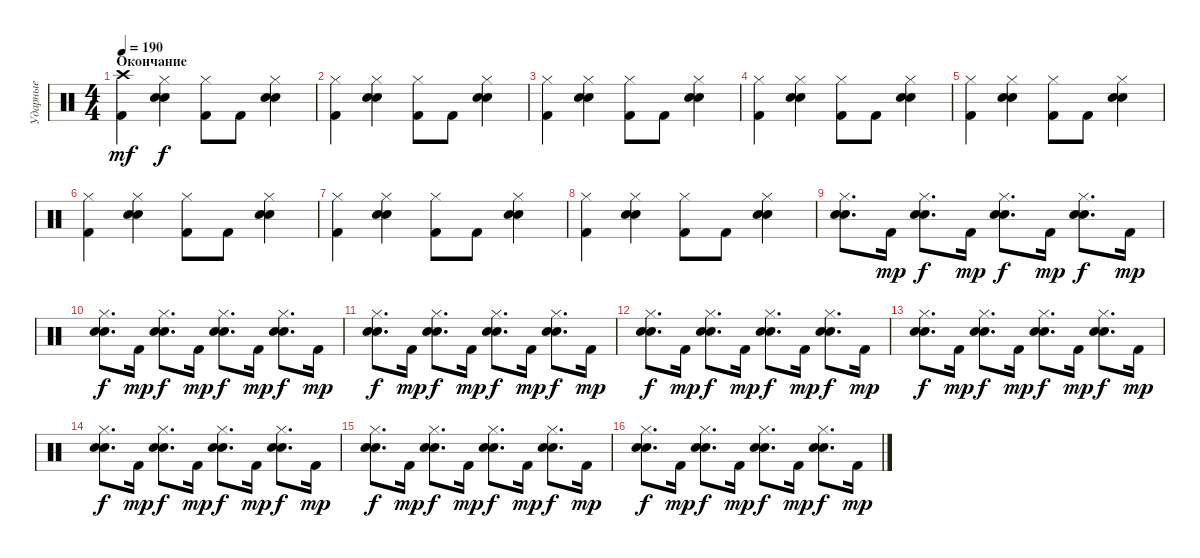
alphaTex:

\track ("Ударные" "Ударные") {instrument percussion}
\staff {score}
\articulation defaults
\ts (4 4)
\section ("" "Окончание")
\tempo 190
\clef neutral
\ks c
("Crash high (hit)" "Kick (hit) 2").4{dy mf} ("Hi-Hat (closed)" "Electric Snare (hit)" "Snare (hit) 2").4{dy f} ("Hi-Hat (closed)" "Kick (hit) 2").8 "Kick (hit) 2".8 ("Hi-Hat (closed)" "Electric Snare (hit)" "Snare (hit) 2").4 |
("Hi-Hat (closed)" "Kick (hit) 2").4 ("Hi-Hat (closed)" "Electric Snare (hit)" "Snare (hit) 2").4 ("Hi-Hat (closed)" "Kick (hit) 2").8 "Kick (hit) 2".8 ("Hi-Hat (closed)" "Electric Snare (hit)" "Snare (hit) 2").4 |
("Hi-Hat (closed)" "Kick (hit) 2").4 ("Hi-Hat (closed)" "Electric Snare (hit)" "Snare (hit) 2").4 ("Hi-Hat (closed)" "Kick (hit) 2").8 "Kick (hit) 2".8 ("Hi-Hat (closed)" "Electric Snare (hit)" "Snare (hit) 2").4 |
("Hi-Hat (closed)" "Kick (hit) 2").4 ("Hi-Hat (closed)" "Electric Snare (hit)" "Snare (hit) 2").4 ("Hi-Hat (closed)" "Kick (hit) 2").8 "Kick (hit) 2".8 ("Hi-Hat (closed)" "Electric Snare (hit)" "Snare (hit) 2").4 |
("Hi-Hat (closed)" "Kick (hit) 2").4 ("Hi-Hat (closed)" "Electric Snare (hit)" "Snare (hit) 2").4 ("Hi-Hat (closed)" "Kick (hit) 2").8 "Kick (hit) 2".8 ("Hi-Hat (closed)" "Electric Snare (hit)" "Snare (hit) 2").4 |
("Hi-Hat (closed)" "Kick (hit) 2").4 ("Hi-Hat (closed)" "Electric Snare (hit)" "Snare (hit) 2").4 ("Hi-Hat (closed)" "Kick (hit) 2").8 "Kick (hit) 2".8 ("Hi-Hat (closed)" "Electric Snare (hit)" "Snare (hit) 2").4 |
("Hi-Hat (closed)" "Kick (hit) 2").4 ("Hi-Hat (closed)" "Electric Snare (hit)" "Snare (hit) 2").4 ("Hi-Hat (closed)" "Kick (hit) 2").8 "Kick (hit) 2".8 ("Hi-Hat (closed)" "Electric Snare (hit)" "Snare (hit) 2").4 |
("Hi-Hat (closed)" "Kick (hit) 2").4 ("Hi-Hat (closed)" "Electric Snare (hit)" "Snare (hit) 2").4 ("Hi-Hat (closed)" "Kick (hit) 2").8 "Kick (hit) 2".8 ("Hi-Hat (closed)" "Electric Snare (hit)" "Snare (hit) 2").4 |
("Hi-Hat (closed)" "Electric Snare (hit)" "Snare (hit) 2").8{d} "Kick (hit) 2".16{dy mp} ("Hi-Hat (closed)" "Electric Snare (hit)" "Snare (hit) 2").8{d dy f} "Kick (hit) 2".16{dy mp} ("Hi-Hat (closed)" "Electric Snare (hit)" "Snare (hit) 2").8{d dy f} "Kick (hit) 2".16{dy mp} ("Hi-Hat (closed)" "Electric Snare (hit)" "Snare (hit) 2").8{d dy f} "Kick (hit) 2".16{dy mp} |
("Hi-Hat (closed)" "Electric Snare (hit)" "Snare (hit) 2").8{d dy f} "Kick (hit) 2".16{dy mp} ("Hi-Hat (closed)" "Electric Snare (hit)" "Snare (hit) 2").8{d dy f} "Kick (hit) 2".16{dy mp} ("Hi-Hat (closed)" "Electric Snare (hit)" "Snare (hit) 2").8{d dy f} "Kick (hit) 2".16{dy mp} ("Hi-Hat (closed)" "Electric Snare (hit)" "Snare (hit) 2").8{d dy f} "Kick (hit) 2".16{dy mp} |
("Hi-Hat (closed)" "Electric Snare (hit)" "Snare (hit) 2").8{d dy f} "Kick (hit) 2".16{dy mp} ("Hi-Hat (closed)" "Electric Snare (hit)" "Snare (hit) 2").8{d dy f} "Kick (hit) 2".16{dy mp} ("Hi-Hat (closed)" "Electric Snare (hit)" "Snare (hit) 2").8{d dy f} "Kick (hit) 2".16{dy mp} ("Hi-Hat (closed)" "Electric Snare (hit)" "Snare (hit) 2").8{d dy f} "Kick (hit) 2".16{dy mp} |
("Hi-Hat (closed)" "Electric Snare (hit)" "Snare (hit) 2").8{d dy f} "Kick (hit) 2".16{dy mp} ("Hi-Hat (closed)" "Electric Snare (hit)" "Snare (hit) 2").8{d dy f} "Kick (hit) 2".16{dy mp} ("Hi-Hat (closed)" "Electric Snare (hit)" "Snare (hit) 2").8{d dy f} "Kick (hit) 2".16{dy mp} ("Hi-Hat (closed)" "Electric Snare (hit)" "Snare (hit) 2").8{d dy f} "Kick (hit) 2".16{dy mp} |
("Hi-Hat (closed)" "Electric Snare (hit)" "Snare (hit) 2").8{d dy f} "Kick (hit) 2".16{dy mp} ("Hi-Hat (closed)" "Electric Snare (hit)" "Snare (hit) 2").8{d dy f} "Kick (hit) 2".16{dy mp} ("Hi-Hat (closed)" "Electric Snare (hit)" "Snare (hit) 2").8{d dy f} "Kick (hit) 2".16{dy mp} ("Hi-Hat (closed)" "Electric Snare (hit)" "Snare (hit) 2").8{d dy f} "Kick (hit) 2".16{dy mp} |
("Hi-Hat (closed)" "Electric Snare (hit)" "Snare (hit) 2").8{d dy f} "Kick (hit) 2".16{dy mp} ("Hi-Hat (closed)" "Electric Snare (hit)" "Snare (hit) 2").8{d dy f} "Kick (hit) 2".16{dy mp} ("Hi-Hat (closed)" "Electric Snare (hit)" "Snare (hit) 2").8{d dy f} "Kick (hit) 2".16{dy mp} ("Hi-Hat (closed)" "Electric Snare (hit)" "Snare (hit) 2").8{d dy f} "Kick (hit) 2".16{dy mp} |
("Hi-Hat (closed)" "Electric Snare (hit)" "Snare (hit) 2").8{d dy f} "Kick (hit) 2".16{dy mp} ("Hi-Hat (closed)" "Electric Snare (hit)" "Snare (hit) 2").8{d dy f} "Kick (hit) 2".16{dy mp} ("Hi-Hat (closed)" "Electric Snare (hit)" "Snare (hit) 2").8{d dy f} "Kick (hit) 2".16{dy mp} ("Hi-Hat (closed)" "Electric Snare (hit)" "Snare (hit) 2").8{d dy f} "Kick (hit) 2".16{dy mp} |
("Hi-Hat (closed)" "Electric Snare (hit)" "Snare (hit) 2").8{d dy f} "Kick (hit) 2".16{dy mp} ("Hi-Hat (closed)" "Electric Snare (hit)" "Snare (hit) 2").8{d dy f} "Kick (hit) 2".16{dy mp} ("Hi-Hat (closed)" "Electric Snare (hit)" "Snare (hit) 2").8{d dy f} "Kick (hit) 2".16{dy mp} ("Hi-Hat (closed)" "Electric Snare (hit)" "Snare (hit) 2").8{d dy f} "Kick (hit) 2".16{dy mp}
